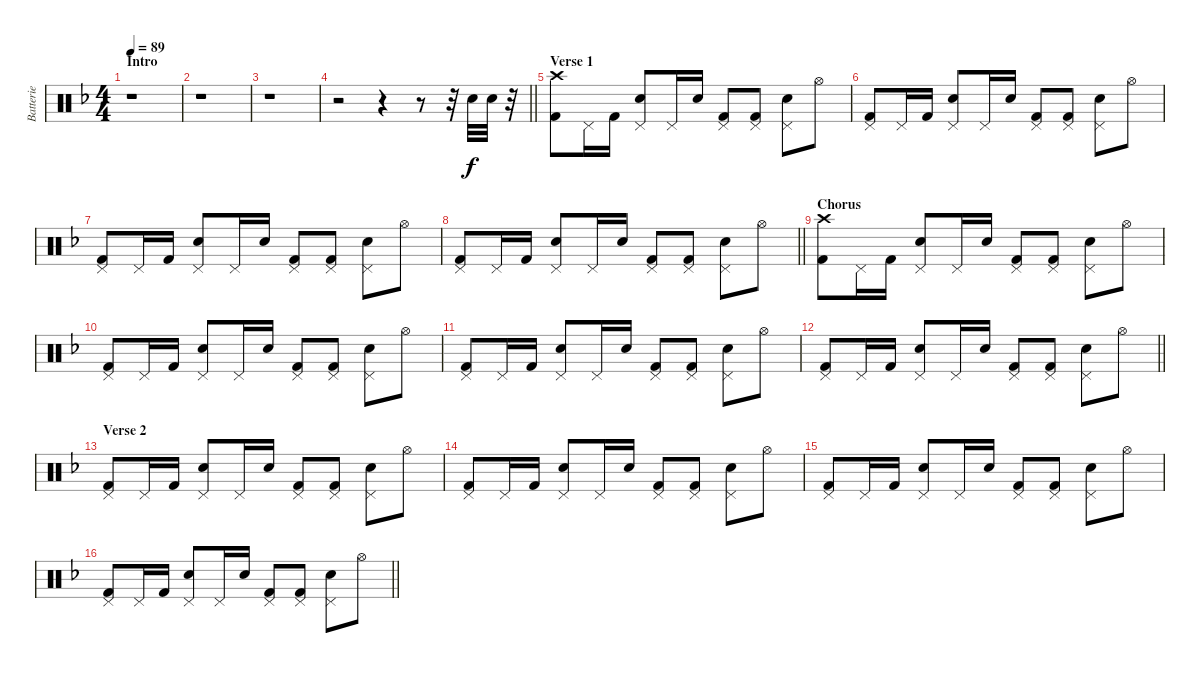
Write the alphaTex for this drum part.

\track ("Batterie" "Batterie") {instrument percussion}
\staff {score}
\articulation defaults
\ts (4 4)
\section ("" "Intro")
\tempo 89
\clef neutral
\ks f
r.1{dy f} |
r.1 |
r.1 |
\barLineRight lightlight
r.2 r.4 r.8 r.32 "Electric Snare (hit)".32 "Electric Snare (hit)".32 r.32 |
\section ("" "Verse 1")
("Crash high (hit)" "Kick (hit) 2").8 "Pedal Hi-Hat (hit)".16 "Kick (hit) 2".16 ("Pedal Hi-Hat (hit)" "Electric Snare (hit)").8 "Pedal Hi-Hat (hit)".16 "Electric Snare (hit)".16 ("Pedal Hi-Hat (hit)" "Kick (hit) 2").8 ("Pedal Hi-Hat (hit)" "Kick (hit) 2").8 ("Pedal Hi-Hat (hit)" "Electric Snare (hit)").8 "Hi-Hat (open)".8 |
("Pedal Hi-Hat (hit)" "Kick (hit) 2").8 "Pedal Hi-Hat (hit)".16 "Kick (hit) 2".16 ("Pedal Hi-Hat (hit)" "Electric Snare (hit)").8 "Pedal Hi-Hat (hit)".16 "Electric Snare (hit)".16 ("Pedal Hi-Hat (hit)" "Kick (hit) 2").8 ("Pedal Hi-Hat (hit)" "Kick (hit) 2").8 ("Pedal Hi-Hat (hit)" "Electric Snare (hit)").8 "Hi-Hat (open)".8 |
("Pedal Hi-Hat (hit)" "Kick (hit) 2").8 "Pedal Hi-Hat (hit)".16 "Kick (hit) 2".16 ("Pedal Hi-Hat (hit)" "Electric Snare (hit)").8 "Pedal Hi-Hat (hit)".16 "Electric Snare (hit)".16 ("Pedal Hi-Hat (hit)" "Kick (hit) 2").8 ("Pedal Hi-Hat (hit)" "Kick (hit) 2").8 ("Pedal Hi-Hat (hit)" "Electric Snare (hit)").8 "Hi-Hat (open)".8 |
\barLineRight lightlight
("Pedal Hi-Hat (hit)" "Kick (hit) 2").8 "Pedal Hi-Hat (hit)".16 "Kick (hit) 2".16 ("Pedal Hi-Hat (hit)" "Electric Snare (hit)").8 "Pedal Hi-Hat (hit)".16 "Electric Snare (hit)".16 ("Pedal Hi-Hat (hit)" "Kick (hit) 2").8 ("Pedal Hi-Hat (hit)" "Kick (hit) 2").8 ("Pedal Hi-Hat (hit)" "Electric Snare (hit)").8 "Hi-Hat (open)".8 |
\section ("" "Chorus")
("Crash high (hit)" "Kick (hit) 2").8 "Pedal Hi-Hat (hit)".16 "Kick (hit) 2".16 ("Pedal Hi-Hat (hit)" "Electric Snare (hit)").8 "Pedal Hi-Hat (hit)".16 "Electric Snare (hit)".16 ("Pedal Hi-Hat (hit)" "Kick (hit) 2").8 ("Pedal Hi-Hat (hit)" "Kick (hit) 2").8 ("Pedal Hi-Hat (hit)" "Electric Snare (hit)").8 "Hi-Hat (open)".8 |
("Pedal Hi-Hat (hit)" "Kick (hit) 2").8 "Pedal Hi-Hat (hit)".16 "Kick (hit) 2".16 ("Pedal Hi-Hat (hit)" "Electric Snare (hit)").8 "Pedal Hi-Hat (hit)".16 "Electric Snare (hit)".16 ("Pedal Hi-Hat (hit)" "Kick (hit) 2").8 ("Pedal Hi-Hat (hit)" "Kick (hit) 2").8 ("Pedal Hi-Hat (hit)" "Electric Snare (hit)").8 "Hi-Hat (open)".8 |
("Pedal Hi-Hat (hit)" "Kick (hit) 2").8 "Pedal Hi-Hat (hit)".16 "Kick (hit) 2".16 ("Pedal Hi-Hat (hit)" "Electric Snare (hit)").8 "Pedal Hi-Hat (hit)".16 "Electric Snare (hit)".16 ("Pedal Hi-Hat (hit)" "Kick (hit) 2").8 ("Pedal Hi-Hat (hit)" "Kick (hit) 2").8 ("Pedal Hi-Hat (hit)" "Electric Snare (hit)").8 "Hi-Hat (open)".8 |
\barLineRight lightlight
("Pedal Hi-Hat (hit)" "Kick (hit) 2").8 "Pedal Hi-Hat (hit)".16 "Kick (hit) 2".16 ("Pedal Hi-Hat (hit)" "Electric Snare (hit)").8 "Pedal Hi-Hat (hit)".16 "Electric Snare (hit)".16 ("Pedal Hi-Hat (hit)" "Kick (hit) 2").8 ("Pedal Hi-Hat (hit)" "Kick (hit) 2").8 ("Pedal Hi-Hat (hit)" "Electric Snare (hit)").8 "Hi-Hat (open)".8 |
\section ("" "Verse 2")
("Pedal Hi-Hat (hit)" "Kick (hit) 2").8 "Pedal Hi-Hat (hit)".16 "Kick (hit) 2".16 ("Pedal Hi-Hat (hit)" "Electric Snare (hit)").8 "Pedal Hi-Hat (hit)".16 "Electric Snare (hit)".16 ("Pedal Hi-Hat (hit)" "Kick (hit) 2").8 ("Pedal Hi-Hat (hit)" "Kick (hit) 2").8 ("Pedal Hi-Hat (hit)" "Electric Snare (hit)").8 "Hi-Hat (open)".8 |
("Pedal Hi-Hat (hit)" "Kick (hit) 2").8 "Pedal Hi-Hat (hit)".16 "Kick (hit) 2".16 ("Pedal Hi-Hat (hit)" "Electric Snare (hit)").8 "Pedal Hi-Hat (hit)".16 "Electric Snare (hit)".16 ("Pedal Hi-Hat (hit)" "Kick (hit) 2").8 ("Pedal Hi-Hat (hit)" "Kick (hit) 2").8 ("Pedal Hi-Hat (hit)" "Electric Snare (hit)").8 "Hi-Hat (open)".8 |
("Pedal Hi-Hat (hit)" "Kick (hit) 2").8 "Pedal Hi-Hat (hit)".16 "Kick (hit) 2".16 ("Pedal Hi-Hat (hit)" "Electric Snare (hit)").8 "Pedal Hi-Hat (hit)".16 "Electric Snare (hit)".16 ("Pedal Hi-Hat (hit)" "Kick (hit) 2").8 ("Pedal Hi-Hat (hit)" "Kick (hit) 2").8 ("Pedal Hi-Hat (hit)" "Electric Snare (hit)").8 "Hi-Hat (open)".8 |
\barLineRight lightlight
("Pedal Hi-Hat (hit)" "Kick (hit) 2").8 "Pedal Hi-Hat (hit)".16 "Kick (hit) 2".16 ("Pedal Hi-Hat (hit)" "Electric Snare (hit)").8 "Pedal Hi-Hat (hit)".16 "Electric Snare (hit)".16 ("Pedal Hi-Hat (hit)" "Kick (hit) 2").8 ("Pedal Hi-Hat (hit)" "Kick (hit) 2").8 ("Pedal Hi-Hat (hit)" "Electric Snare (hit)").8 "Hi-Hat (open)".8
